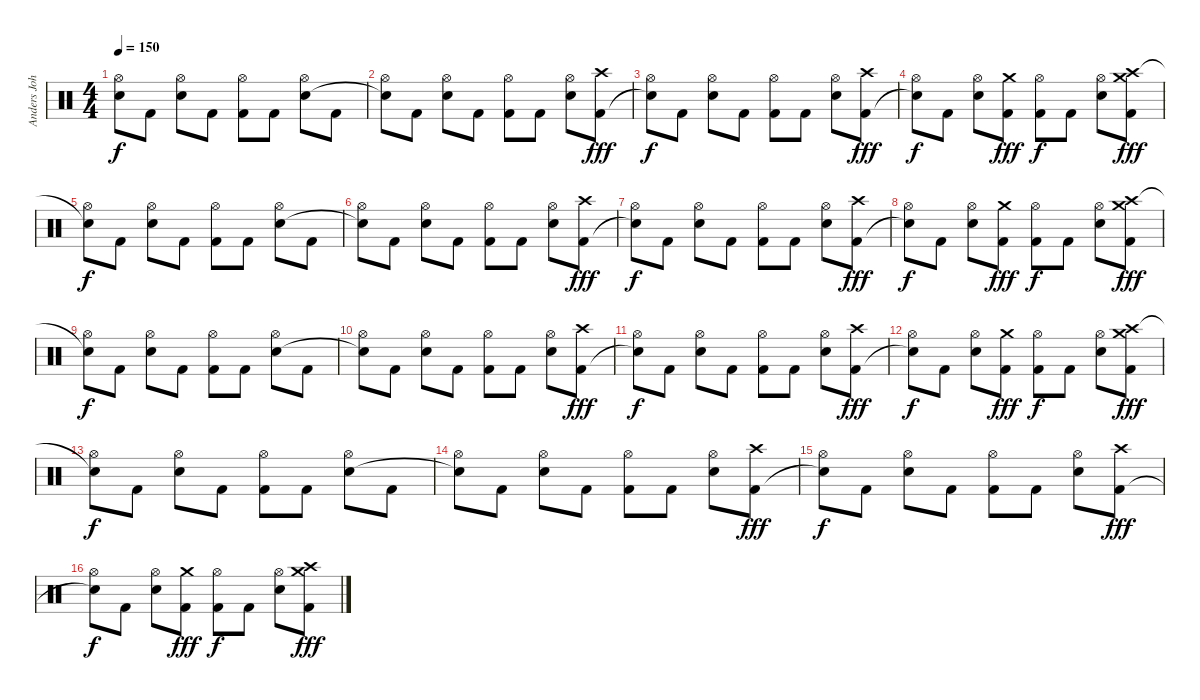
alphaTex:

\track ("Anders Johansson" "Anders Joh") {instrument percussion}
\staff {score}
\articulation defaults
\ts (4 4)
\tempo 150
\clef neutral
\ks c
("Hi-Hat (open)" "Snare (hit)"{t}).8{dy f} "Kick (hit) 2".8 ("Hi-Hat (open)" "Electric Snare (hit)").8 "Kick (hit) 2".8 ("Hi-Hat (open)" "Kick (hit) 2").8 "Kick (hit) 2".8 ("Hi-Hat (open)" "Electric Snare (hit)").8 "Kick (hit) 2".8 |
("Hi-Hat (open)" "Snare (hit)"{t}).8 "Kick (hit) 2".8 ("Hi-Hat (open)" "Electric Snare (hit)").8 "Kick (hit) 2".8 ("Hi-Hat (open)" "Kick (hit) 2").8 "Kick (hit) 2".8 ("Hi-Hat (open)" "Electric Snare (hit)").8 ("Crash high (hit)" "Kick (hit) 2").8{dy fff} |
("Hi-Hat (open)" "Snare (hit)"{t}).8{dy f} "Kick (hit) 2".8 ("Hi-Hat (open)" "Electric Snare (hit)").8 "Kick (hit) 2".8 ("Hi-Hat (open)" "Kick (hit) 2").8 "Kick (hit) 2".8 ("Hi-Hat (open)" "Electric Snare (hit)").8 ("Crash high (hit)" "Kick (hit) 2").8{dy fff} |
("Hi-Hat (open)" "Snare (hit)"{t}).8{dy f} "Kick (hit) 2".8 ("Hi-Hat (open)" "Electric Snare (hit)").8 ("Crash medium (hit)" "Kick (hit) 2").8{dy fff} ("Hi-Hat (open)" "Kick (hit) 2").8{dy f} "Kick (hit) 2".8 ("Hi-Hat (open)" "Electric Snare (hit)").8 ("Crash medium (hit)" "Crash high (hit)" "Kick (hit) 2").8{dy fff} |
("Hi-Hat (open)" "Snare (hit)"{t}).8{dy f} "Kick (hit) 2".8 ("Hi-Hat (open)" "Electric Snare (hit)").8 "Kick (hit) 2".8 ("Hi-Hat (open)" "Kick (hit) 2").8 "Kick (hit) 2".8 ("Hi-Hat (open)" "Electric Snare (hit)").8 "Kick (hit) 2".8 |
("Hi-Hat (open)" "Snare (hit)"{t}).8 "Kick (hit) 2".8 ("Hi-Hat (open)" "Electric Snare (hit)").8 "Kick (hit) 2".8 ("Hi-Hat (open)" "Kick (hit) 2").8 "Kick (hit) 2".8 ("Hi-Hat (open)" "Electric Snare (hit)").8 ("Crash high (hit)" "Kick (hit) 2").8{dy fff} |
("Hi-Hat (open)" "Snare (hit)"{t}).8{dy f} "Kick (hit) 2".8 ("Hi-Hat (open)" "Electric Snare (hit)").8 "Kick (hit) 2".8 ("Hi-Hat (open)" "Kick (hit) 2").8 "Kick (hit) 2".8 ("Hi-Hat (open)" "Electric Snare (hit)").8 ("Crash high (hit)" "Kick (hit) 2").8{dy fff} |
("Hi-Hat (open)" "Snare (hit)"{t}).8{dy f} "Kick (hit) 2".8 ("Hi-Hat (open)" "Electric Snare (hit)").8 ("Crash medium (hit)" "Kick (hit) 2").8{dy fff} ("Hi-Hat (open)" "Kick (hit) 2").8{dy f} "Kick (hit) 2".8 ("Hi-Hat (open)" "Electric Snare (hit)").8 ("Crash medium (hit)" "Crash high (hit)" "Kick (hit) 2").8{dy fff} |
("Hi-Hat (open)" "Snare (hit)"{t}).8{dy f} "Kick (hit) 2".8 ("Hi-Hat (open)" "Electric Snare (hit)").8 "Kick (hit) 2".8 ("Hi-Hat (open)" "Kick (hit) 2").8 "Kick (hit) 2".8 ("Hi-Hat (open)" "Electric Snare (hit)").8 "Kick (hit) 2".8 |
("Hi-Hat (open)" "Snare (hit)"{t}).8 "Kick (hit) 2".8 ("Hi-Hat (open)" "Electric Snare (hit)").8 "Kick (hit) 2".8 ("Hi-Hat (open)" "Kick (hit) 2").8 "Kick (hit) 2".8 ("Hi-Hat (open)" "Electric Snare (hit)").8 ("Crash high (hit)" "Kick (hit) 2").8{dy fff} |
("Hi-Hat (open)" "Snare (hit)"{t}).8{dy f} "Kick (hit) 2".8 ("Hi-Hat (open)" "Electric Snare (hit)").8 "Kick (hit) 2".8 ("Hi-Hat (open)" "Kick (hit) 2").8 "Kick (hit) 2".8 ("Hi-Hat (open)" "Electric Snare (hit)").8 ("Crash high (hit)" "Kick (hit) 2").8{dy fff} |
("Hi-Hat (open)" "Snare (hit)"{t}).8{dy f} "Kick (hit) 2".8 ("Hi-Hat (open)" "Electric Snare (hit)").8 ("Crash medium (hit)" "Kick (hit) 2").8{dy fff} ("Hi-Hat (open)" "Kick (hit) 2").8{dy f} "Kick (hit) 2".8 ("Hi-Hat (open)" "Electric Snare (hit)").8 ("Crash medium (hit)" "Crash high (hit)" "Kick (hit) 2").8{dy fff} |
("Hi-Hat (open)" "Snare (hit)"{t}).8{dy f} "Kick (hit) 2".8 ("Hi-Hat (open)" "Electric Snare (hit)").8 "Kick (hit) 2".8 ("Hi-Hat (open)" "Kick (hit) 2").8 "Kick (hit) 2".8 ("Hi-Hat (open)" "Electric Snare (hit)").8 "Kick (hit) 2".8 |
("Hi-Hat (open)" "Snare (hit)"{t}).8 "Kick (hit) 2".8 ("Hi-Hat (open)" "Electric Snare (hit)").8 "Kick (hit) 2".8 ("Hi-Hat (open)" "Kick (hit) 2").8 "Kick (hit) 2".8 ("Hi-Hat (open)" "Electric Snare (hit)").8 ("Crash high (hit)" "Kick (hit) 2").8{dy fff} |
("Hi-Hat (open)" "Snare (hit)"{t}).8{dy f} "Kick (hit) 2".8 ("Hi-Hat (open)" "Electric Snare (hit)").8 "Kick (hit) 2".8 ("Hi-Hat (open)" "Kick (hit) 2").8 "Kick (hit) 2".8 ("Hi-Hat (open)" "Electric Snare (hit)").8 ("Crash high (hit)" "Kick (hit) 2").8{dy fff} |
("Hi-Hat (open)" "Snare (hit)"{t}).8{dy f} "Kick (hit) 2".8 ("Hi-Hat (open)" "Electric Snare (hit)").8 ("Crash medium (hit)" "Kick (hit) 2").8{dy fff} ("Hi-Hat (open)" "Kick (hit) 2").8{dy f} "Kick (hit) 2".8 ("Hi-Hat (open)" "Electric Snare (hit)").8 ("Crash medium (hit)" "Crash high (hit)" "Kick (hit) 2").8{dy fff}
